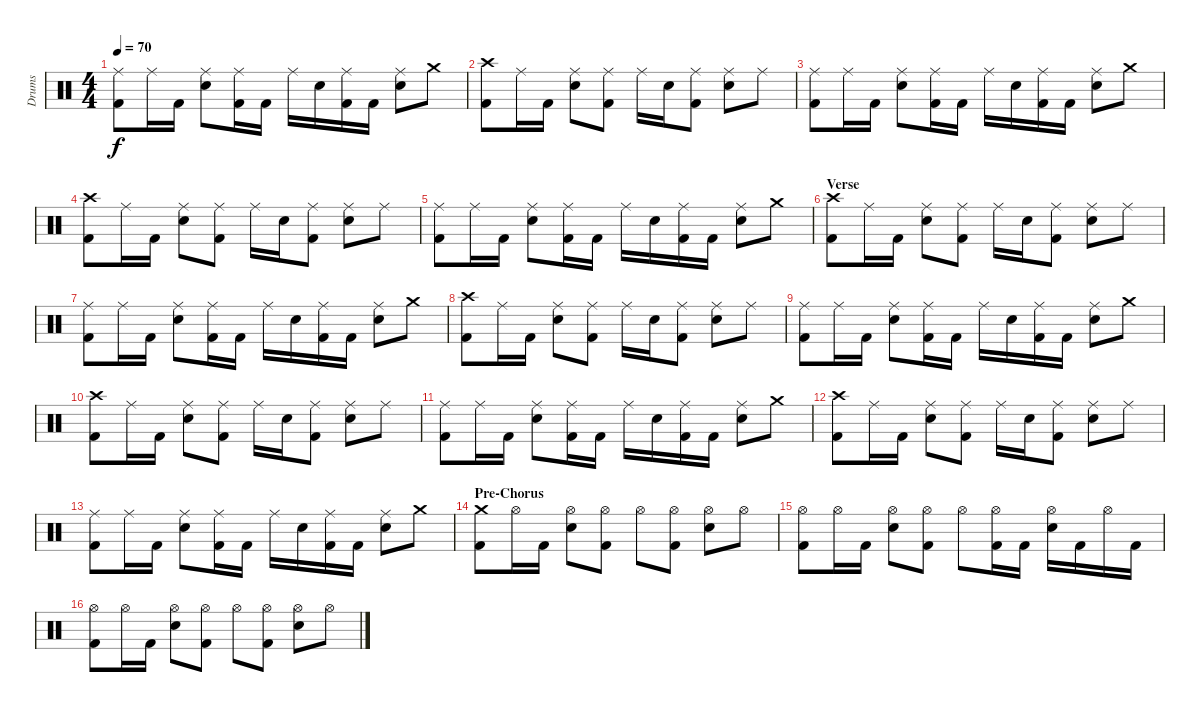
\track ("Drums" "Drums") {instrument percussion}
\staff {score}
\articulation defaults
\ts (4 4)
\tempo 70
\clef neutral
\ks c
("Ride (middle)" "Kick (hit) 2").8{dy f} "Ride (middle)".16 "Kick (hit) 2".16 ("Ride (middle)" "Electric Snare (hit)").8 ("Ride (middle)" "Kick (hit) 2").16 "Kick (hit) 2".16 "Ride (middle)".16 "Electric Snare (hit)".16 ("Ride (middle)" "Kick (hit) 2").16 "Kick (hit) 2".16 ("Ride (middle)" "Electric Snare (hit)").8 "Crash medium (hit)".8 |
("Crash high (hit)" "Kick (hit) 2").8 "Ride (middle)".16 "Kick (hit) 2".16 ("Ride (middle)" "Electric Snare (hit)").8 ("Ride (middle)" "Kick (hit) 2").8 "Ride (middle)".16 "Electric Snare (hit)".16 ("Ride (middle)" "Kick (hit) 2").8 ("Ride (middle)" "Electric Snare (hit)").8 "Ride (middle)".8 |
("Ride (middle)" "Kick (hit) 2").8 "Ride (middle)".16 "Kick (hit) 2".16 ("Ride (middle)" "Electric Snare (hit)").8 ("Ride (middle)" "Kick (hit) 2").16 "Kick (hit) 2".16 "Ride (middle)".16 "Electric Snare (hit)".16 ("Ride (middle)" "Kick (hit) 2").16 "Kick (hit) 2".16 ("Ride (middle)" "Electric Snare (hit)").8 "Crash medium (hit)".8 |
("Crash high (hit)" "Kick (hit) 2").8 "Ride (middle)".16 "Kick (hit) 2".16 ("Ride (middle)" "Electric Snare (hit)").8 ("Ride (middle)" "Kick (hit) 2").8 "Ride (middle)".16 "Electric Snare (hit)".16 ("Ride (middle)" "Kick (hit) 2").8 ("Ride (middle)" "Electric Snare (hit)").8 "Ride (middle)".8 |
("Ride (middle)" "Kick (hit) 2").8 "Ride (middle)".16 "Kick (hit) 2".16 ("Ride (middle)" "Electric Snare (hit)").8 ("Ride (middle)" "Kick (hit) 2").16 "Kick (hit) 2".16 "Ride (middle)".16 "Electric Snare (hit)".16 ("Ride (middle)" "Kick (hit) 2").16 "Kick (hit) 2".16 ("Ride (middle)" "Electric Snare (hit)").8 "Crash medium (hit)".8 |
\section ("" "Verse")
("Crash high (hit)" "Kick (hit) 2").8 "Ride (middle)".16 "Kick (hit) 2".16 ("Ride (middle)" "Electric Snare (hit)").8 ("Ride (middle)" "Kick (hit) 2").8 "Ride (middle)".16 "Electric Snare (hit)".16 ("Ride (middle)" "Kick (hit) 2").8 ("Ride (middle)" "Electric Snare (hit)").8 "Ride (middle)".8 |
("Ride (middle)" "Kick (hit) 2").8 "Ride (middle)".16 "Kick (hit) 2".16 ("Ride (middle)" "Electric Snare (hit)").8 ("Ride (middle)" "Kick (hit) 2").16 "Kick (hit) 2".16 "Ride (middle)".16 "Electric Snare (hit)".16 ("Ride (middle)" "Kick (hit) 2").16 "Kick (hit) 2".16 ("Ride (middle)" "Electric Snare (hit)").8 "Crash medium (hit)".8 |
("Crash high (hit)" "Kick (hit) 2").8 "Ride (middle)".16 "Kick (hit) 2".16 ("Ride (middle)" "Electric Snare (hit)").8 ("Ride (middle)" "Kick (hit) 2").8 "Ride (middle)".16 "Electric Snare (hit)".16 ("Ride (middle)" "Kick (hit) 2").8 ("Ride (middle)" "Electric Snare (hit)").8 "Ride (middle)".8 |
("Ride (middle)" "Kick (hit) 2").8 "Ride (middle)".16 "Kick (hit) 2".16 ("Ride (middle)" "Electric Snare (hit)").8 ("Ride (middle)" "Kick (hit) 2").16 "Kick (hit) 2".16 "Ride (middle)".16 "Electric Snare (hit)".16 ("Ride (middle)" "Kick (hit) 2").16 "Kick (hit) 2".16 ("Ride (middle)" "Electric Snare (hit)").8 "Crash medium (hit)".8 |
("Crash high (hit)" "Kick (hit) 2").8 "Ride (middle)".16 "Kick (hit) 2".16 ("Ride (middle)" "Electric Snare (hit)").8 ("Ride (middle)" "Kick (hit) 2").8 "Ride (middle)".16 "Electric Snare (hit)".16 ("Ride (middle)" "Kick (hit) 2").8 ("Ride (middle)" "Electric Snare (hit)").8 "Ride (middle)".8 |
("Ride (middle)" "Kick (hit) 2").8 "Ride (middle)".16 "Kick (hit) 2".16 ("Ride (middle)" "Electric Snare (hit)").8 ("Ride (middle)" "Kick (hit) 2").16 "Kick (hit) 2".16 "Ride (middle)".16 "Electric Snare (hit)".16 ("Ride (middle)" "Kick (hit) 2").16 "Kick (hit) 2".16 ("Ride (middle)" "Electric Snare (hit)").8 "Crash medium (hit)".8 |
("Crash high (hit)" "Kick (hit) 2").8 "Ride (middle)".16 "Kick (hit) 2".16 ("Ride (middle)" "Electric Snare (hit)").8 ("Ride (middle)" "Kick (hit) 2").8 "Ride (middle)".16 "Electric Snare (hit)".16 ("Ride (middle)" "Kick (hit) 2").8 ("Ride (middle)" "Electric Snare (hit)").8 "Ride (middle)".8 |
("Ride (middle)" "Kick (hit) 2").8 "Ride (middle)".16 "Kick (hit) 2".16 ("Ride (middle)" "Electric Snare (hit)").8 ("Ride (middle)" "Kick (hit) 2").16 "Kick (hit) 2".16 "Ride (middle)".16 "Electric Snare (hit)".16 ("Ride (middle)" "Kick (hit) 2").16 "Kick (hit) 2".16 ("Ride (middle)" "Electric Snare (hit)").8 "Crash medium (hit)".8 |
\section ("" "Pre-Chorus")
("Crash medium (hit)" "Kick (hit) 2").8 "Hi-Hat (open)".16 "Kick (hit) 2".16 ("Hi-Hat (open)" "Electric Snare (hit)").8 ("Hi-Hat (open)" "Kick (hit) 2").8 "Hi-Hat (open)".8 ("Hi-Hat (open)" "Kick (hit) 2").8 ("Hi-Hat (open)" "Electric Snare (hit)").8 "Hi-Hat (open)".8 |
("Hi-Hat (open)" "Kick (hit) 2").8 "Hi-Hat (open)".16 "Kick (hit) 2".16 ("Hi-Hat (open)" "Electric Snare (hit)").8 ("Hi-Hat (open)" "Kick (hit) 2").8 "Hi-Hat (open)".8 ("Hi-Hat (open)" "Kick (hit) 2").16 "Kick (hit) 2".16 ("Hi-Hat (open)" "Electric Snare (hit)").16 "Kick (hit) 2".16 "Hi-Hat (open)".16 "Kick (hit) 2".16 |
("Hi-Hat (open)" "Kick (hit) 2").8 "Hi-Hat (open)".16 "Kick (hit) 2".16 ("Hi-Hat (open)" "Electric Snare (hit)").8 ("Hi-Hat (open)" "Kick (hit) 2").8 "Hi-Hat (open)".8 ("Hi-Hat (open)" "Kick (hit) 2").8 ("Hi-Hat (open)" "Electric Snare (hit)").8 "Hi-Hat (open)".8
